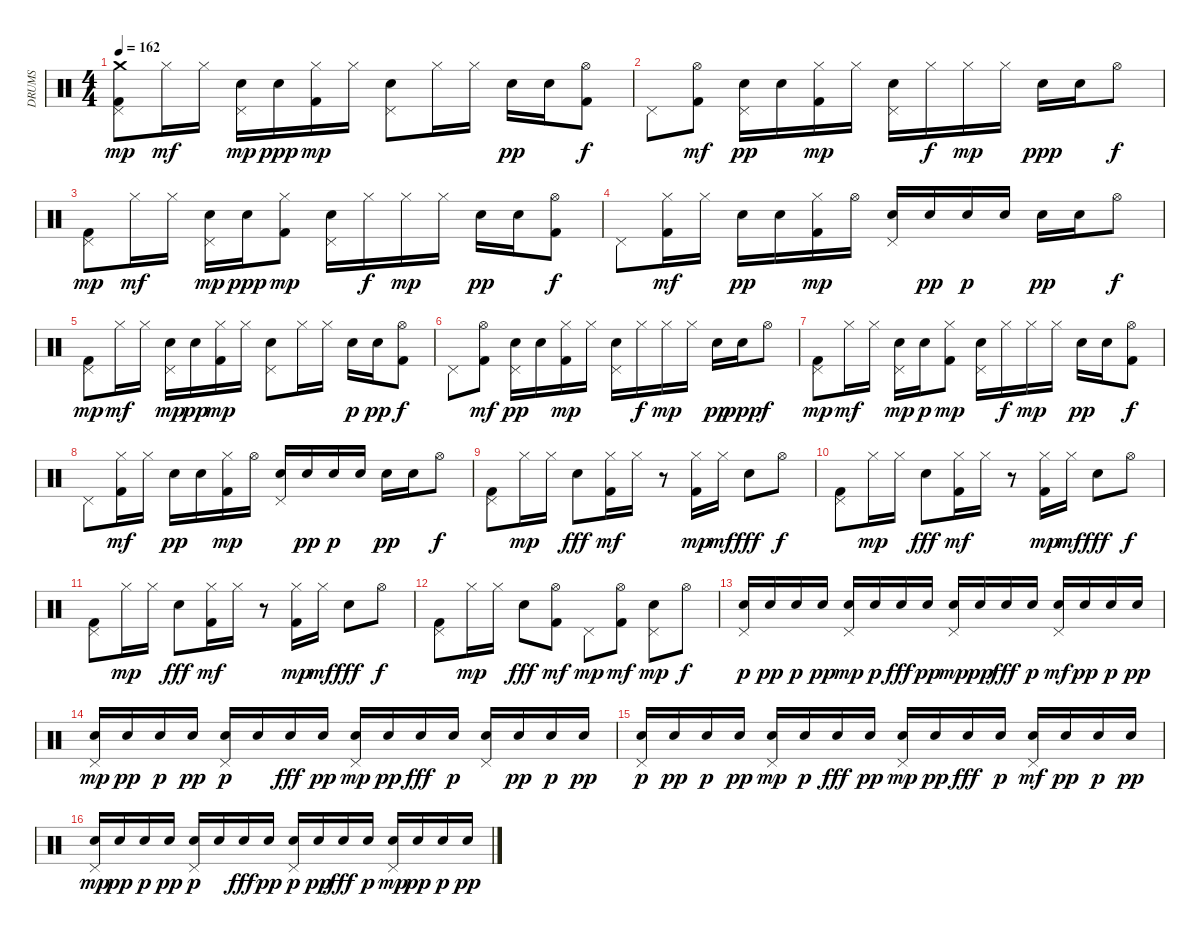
\track ("DRUMS" "DRUMS") {instrument percussion}
\staff {score}
\articulation defaults
\ts (4 4)
\tempo 162
\clef neutral
\ks c
("Crash medium (hit)" "Pedal Hi-Hat (hit)" "Kick (hit) 2").8{dy mp} "Hi-Hat (closed)".16{dy mf} "Hi-Hat (closed)".16 ("Electric Snare (hit)" "Pedal Hi-Hat (hit)").16{dy mp} "Electric Snare (hit)".16{dy ppp} ("Hi-Hat (closed)" "Kick (hit) 2").16{dy mp} "Hi-Hat (closed)".16 ("Electric Snare (hit)" "Pedal Hi-Hat (hit)").8 "Hi-Hat (closed)".16 "Hi-Hat (closed)".16 "Electric Snare (hit)".16{dy pp} "Electric Snare (hit)".16 ("Hi-Hat (open)" "Kick (hit) 2").8{dy f} |
"Pedal Hi-Hat (hit)".8 ("Hi-Hat (open)" "Kick (hit) 2").8{dy mf} ("Electric Snare (hit)" "Pedal Hi-Hat (hit)").16{dy pp} "Electric Snare (hit)".16 ("Hi-Hat (closed)" "Kick (hit) 2").16{dy mp} "Hi-Hat (closed)".16 ("Electric Snare (hit)" "Pedal Hi-Hat (hit)").16 "Hi-Hat (closed)".16{dy f} "Hi-Hat (closed)".16{dy mp} "Hi-Hat (closed)".16 "Electric Snare (hit)".16{dy ppp} "Electric Snare (hit)".16 "Hi-Hat (open)".8{dy f} |
("Pedal Hi-Hat (hit)" "Kick (hit) 2").8{dy mp} "Hi-Hat (closed)".16{dy mf} "Hi-Hat (closed)".16 ("Electric Snare (hit)" "Pedal Hi-Hat (hit)").16{dy mp} "Electric Snare (hit)".16{dy ppp} ("Hi-Hat (closed)" "Kick (hit) 2").8{dy mp} ("Electric Snare (hit)" "Pedal Hi-Hat (hit)").16 "Hi-Hat (closed)".16{dy f} "Hi-Hat (closed)".16{dy mp} "Hi-Hat (closed)".16 "Electric Snare (hit)".16{dy pp} "Electric Snare (hit)".16 ("Hi-Hat (open)" "Kick (hit) 2").8{dy f} |
"Pedal Hi-Hat (hit)".8 ("Hi-Hat (closed)" "Kick (hit) 2").16{dy mf} "Hi-Hat (closed)".16 "Electric Snare (hit)".16{dy pp} "Electric Snare (hit)".16 ("Hi-Hat (closed)" "Kick (hit) 2").16{dy mp} "Hi-Hat (open)".16 ("Electric Snare (hit)" "Pedal Hi-Hat (hit)").16 "Electric Snare (hit)".16{dy pp} "Electric Snare (hit)".16{dy p} "Electric Snare (hit)".16 "Electric Snare (hit)".16{dy pp} "Electric Snare (hit)".16 "Hi-Hat (open)".8{dy f} |
("Pedal Hi-Hat (hit)" "Kick (hit) 2").8{dy mp} "Hi-Hat (closed)".16{dy mf} "Hi-Hat (closed)".16 ("Electric Snare (hit)" "Pedal Hi-Hat (hit)").16{dy mp} "Electric Snare (hit)".16{dy pp} ("Hi-Hat (closed)" "Kick (hit) 2").16{dy mp} "Hi-Hat (closed)".16 ("Electric Snare (hit)" "Pedal Hi-Hat (hit)").8 "Hi-Hat (closed)".16 "Hi-Hat (closed)".16 "Electric Snare (hit)".16{dy p} "Electric Snare (hit)".16{dy pp} ("Hi-Hat (open)" "Kick (hit) 2").8{dy f} |
"Pedal Hi-Hat (hit)".8 ("Hi-Hat (open)" "Kick (hit) 2").8{dy mf} ("Electric Snare (hit)" "Pedal Hi-Hat (hit)").16{dy pp} "Electric Snare (hit)".16 ("Hi-Hat (closed)" "Kick (hit) 2").16{dy mp} "Hi-Hat (closed)".16 ("Electric Snare (hit)" "Pedal Hi-Hat (hit)").16 "Hi-Hat (closed)".16{dy f} "Hi-Hat (closed)".16{dy mp} "Hi-Hat (closed)".16 "Electric Snare (hit)".16{dy pp} "Electric Snare (hit)".16{dy ppp} "Hi-Hat (open)".8{dy f} |
("Pedal Hi-Hat (hit)" "Kick (hit) 2").8{dy mp} "Hi-Hat (closed)".16{dy mf} "Hi-Hat (closed)".16 ("Electric Snare (hit)" "Pedal Hi-Hat (hit)").16{dy mp} "Electric Snare (hit)".16{dy p} ("Hi-Hat (closed)" "Kick (hit) 2").8{dy mp} ("Electric Snare (hit)" "Pedal Hi-Hat (hit)").16 "Hi-Hat (closed)".16{dy f} "Hi-Hat (closed)".16{dy mp} "Hi-Hat (closed)".16 "Electric Snare (hit)".16{dy pp} "Electric Snare (hit)".16 ("Hi-Hat (open)" "Kick (hit) 2").8{dy f} |
"Pedal Hi-Hat (hit)".8 ("Hi-Hat (closed)" "Kick (hit) 2").16{dy mf} "Hi-Hat (closed)".16 "Electric Snare (hit)".16{dy pp} "Electric Snare (hit)".16 ("Hi-Hat (closed)" "Kick (hit) 2").16{dy mp} "Hi-Hat (open)".16 ("Electric Snare (hit)" "Pedal Hi-Hat (hit)").16 "Electric Snare (hit)".16{dy pp} "Electric Snare (hit)".16{dy p} "Electric Snare (hit)".16 "Electric Snare (hit)".16{dy pp} "Electric Snare (hit)".16 "Hi-Hat (open)".8{dy f} |
("Pedal Hi-Hat (hit)" "Kick (hit) 2").8 "Hi-Hat (closed)".16{dy mp} "Hi-Hat (closed)".16 "Electric Snare (hit)".8{dy fff} ("Hi-Hat (closed)" "Kick (hit) 2").16{dy mf} "Hi-Hat (closed)".16 r.8 ("Hi-Hat (closed)" "Kick (hit) 2").16{dy mp} "Hi-Hat (closed)".16{dy mf} "Electric Snare (hit)".8{dy fff} "Hi-Hat (open)".8{dy f} |
("Pedal Hi-Hat (hit)" "Kick (hit) 2").8 "Hi-Hat (closed)".16{dy mp} "Hi-Hat (closed)".16 "Electric Snare (hit)".8{dy fff} ("Hi-Hat (closed)" "Kick (hit) 2").16{dy mf} "Hi-Hat (closed)".16 r.8 ("Hi-Hat (closed)" "Kick (hit) 2").16{dy mp} "Hi-Hat (closed)".16{dy mf} "Electric Snare (hit)".8{dy fff} "Hi-Hat (open)".8{dy f} |
("Pedal Hi-Hat (hit)" "Kick (hit) 2").8 "Hi-Hat (closed)".16{dy mp} "Hi-Hat (closed)".16 "Electric Snare (hit)".8{dy fff} ("Hi-Hat (closed)" "Kick (hit) 2").16{dy mf} "Hi-Hat (closed)".16 r.8 ("Hi-Hat (closed)" "Kick (hit) 2").16{dy mp} "Hi-Hat (closed)".16{dy mf} "Electric Snare (hit)".8{dy fff} "Hi-Hat (open)".8{dy f} |
("Pedal Hi-Hat (hit)" "Kick (hit) 2").8 "Hi-Hat (closed)".16{dy mp} "Hi-Hat (closed)".16 "Electric Snare (hit)".8{dy fff} ("Hi-Hat (open)" "Kick (hit) 2").8{dy mf} "Pedal Hi-Hat (hit)".8{dy mp} ("Hi-Hat (open)" "Kick (hit) 2").8{dy mf} ("Electric Snare (hit)" "Pedal Hi-Hat (hit)").8{dy mp} "Hi-Hat (open)".8{dy f} |
("Electric Snare (hit)" "Pedal Hi-Hat (hit)").16{dy p} "Electric Snare (hit)".16{dy pp} "Electric Snare (hit)".16{dy p} "Electric Snare (hit)".16{dy pp} ("Electric Snare (hit)" "Pedal Hi-Hat (hit)").16{dy mp} "Electric Snare (hit)".16{dy p} "Electric Snare (hit)".16{dy fff} "Electric Snare (hit)".16{dy pp} ("Electric Snare (hit)" "Pedal Hi-Hat (hit)").16{dy mp} "Electric Snare (hit)".16{dy pp} "Electric Snare (hit)".16{dy fff} "Electric Snare (hit)".16{dy p} ("Electric Snare (hit)" "Pedal Hi-Hat (hit)").16{dy mf} "Electric Snare (hit)".16{dy pp} "Electric Snare (hit)".16{dy p} "Electric Snare (hit)".16{dy pp} |
("Electric Snare (hit)" "Pedal Hi-Hat (hit)").16{dy mp} "Electric Snare (hit)".16{dy pp} "Electric Snare (hit)".16{dy p} "Electric Snare (hit)".16{dy pp} ("Electric Snare (hit)" "Pedal Hi-Hat (hit)").16{dy p} "Electric Snare (hit)".16 "Electric Snare (hit)".16{dy fff} "Electric Snare (hit)".16{dy pp} ("Electric Snare (hit)" "Pedal Hi-Hat (hit)").16{dy mp} "Electric Snare (hit)".16{dy pp} "Electric Snare (hit)".16{dy fff} "Electric Snare (hit)".16{dy p} ("Electric Snare (hit)" "Pedal Hi-Hat (hit)").16 "Electric Snare (hit)".16{dy pp} "Electric Snare (hit)".16{dy p} "Electric Snare (hit)".16{dy pp} |
("Electric Snare (hit)" "Pedal Hi-Hat (hit)").16{dy p} "Electric Snare (hit)".16{dy pp} "Electric Snare (hit)".16{dy p} "Electric Snare (hit)".16{dy pp} ("Electric Snare (hit)" "Pedal Hi-Hat (hit)").16{dy mp} "Electric Snare (hit)".16{dy p} "Electric Snare (hit)".16{dy fff} "Electric Snare (hit)".16{dy pp} ("Electric Snare (hit)" "Pedal Hi-Hat (hit)").16{dy mp} "Electric Snare (hit)".16{dy pp} "Electric Snare (hit)".16{dy fff} "Electric Snare (hit)".16{dy p} ("Electric Snare (hit)" "Pedal Hi-Hat (hit)").16{dy mf} "Electric Snare (hit)".16{dy pp} "Electric Snare (hit)".16{dy p} "Electric Snare (hit)".16{dy pp} |
("Electric Snare (hit)" "Pedal Hi-Hat (hit)").16{dy mp} "Electric Snare (hit)".16{dy pp} "Electric Snare (hit)".16{dy p} "Electric Snare (hit)".16{dy pp} ("Electric Snare (hit)" "Pedal Hi-Hat (hit)").16{dy p} "Electric Snare (hit)".16 "Electric Snare (hit)".16{dy fff} "Electric Snare (hit)".16{dy pp} ("Electric Snare (hit)" "Pedal Hi-Hat (hit)").16{dy p} "Electric Snare (hit)".16{dy pp} "Electric Snare (hit)".16{dy fff} "Electric Snare (hit)".16{dy p} ("Electric Snare (hit)" "Pedal Hi-Hat (hit)").16{dy mp} "Electric Snare (hit)".16{dy pp} "Electric Snare (hit)".16{dy p} "Electric Snare (hit)".16{dy pp}
